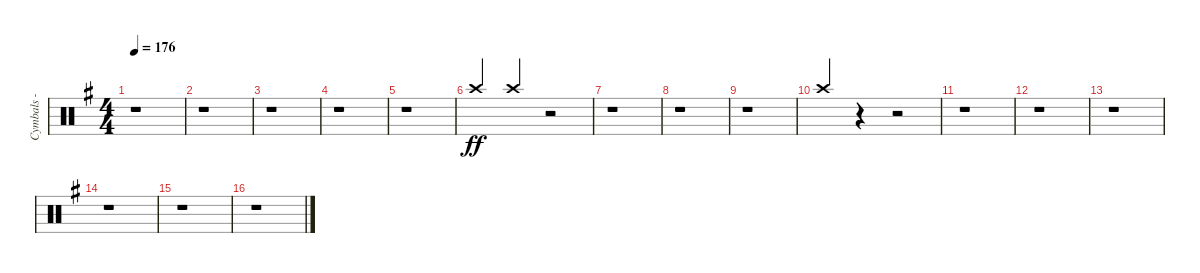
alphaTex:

\track ("Cymbals - crash" "Cymbals - ") {instrument percussion}
\staff {score}
\articulation defaults
\ts (4 4)
\tempo 176
\clef neutral
\ks eminor
r.1{dy ff} |
r.1 |
r.1 |
r.1 |
r.1 |
"Crash high (hit)".4{beam Up} "Crash high (hit)".4{beam Up} r.2 |
r.1 |
r.1 |
r.1 |
"Crash high (hit)".4{beam Up} r.4 r.2 |
r.1 |
r.1 |
r.1 |
r.1 |
r.1 |
r.1
